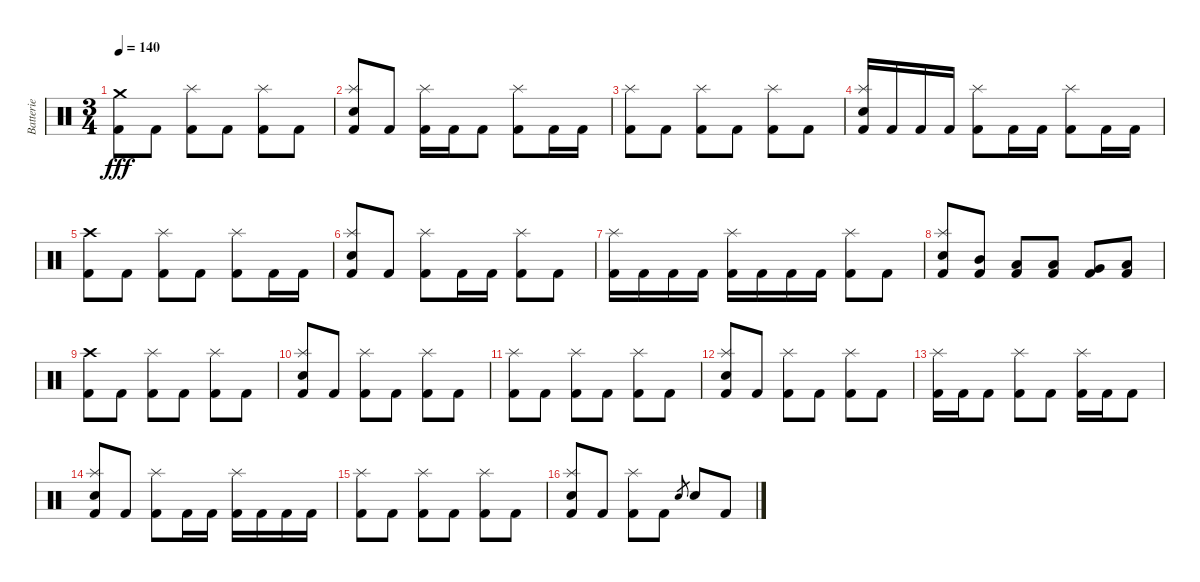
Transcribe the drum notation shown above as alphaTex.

\track ("Batterie" "Batterie") {instrument percussion}
\staff {score}
\articulation defaults
\ts (3 4)
\tempo 140
\clef neutral
\ks c
("Crash medium (hit)" "Kick (hit) 2").8{dy fff} "Kick (hit) 2".8 ("Splash (hit)" "Kick (hit) 2").8 "Kick (hit) 2".8 ("Splash (hit)" "Kick (hit) 2").8 "Kick (hit) 2".8 |
("Splash (hit)" "Electric Snare (hit)" "Kick (hit) 2").8 "Kick (hit) 2".8 ("Splash (hit)" "Kick (hit) 2").16 "Kick (hit) 2".16 "Kick (hit) 2".8 ("Splash (hit)" "Kick (hit) 2").8 "Kick (hit) 2".16 "Kick (hit) 2".16 |
("Splash (hit)" "Kick (hit) 2").8 "Kick (hit) 2".8 ("Splash (hit)" "Kick (hit) 2").8 "Kick (hit) 2".8 ("Splash (hit)" "Kick (hit) 2").8 "Kick (hit) 2".8 |
("Splash (hit)" "Electric Snare (hit)" "Kick (hit) 2").16 "Kick (hit) 2".16 "Kick (hit) 2".16 "Kick (hit) 2".16 ("Splash (hit)" "Kick (hit) 2").8 "Kick (hit) 2".16 "Kick (hit) 2".16 ("Splash (hit)" "Kick (hit) 2").8 "Kick (hit) 2".16 "Kick (hit) 2".16 |
("Crash high (hit)" "Kick (hit) 2").8 "Kick (hit) 2".8 ("Splash (hit)" "Kick (hit) 2").8 "Kick (hit) 2".8 ("Splash (hit)" "Kick (hit) 2").8 "Kick (hit) 2".16 "Kick (hit) 2".16 |
("Splash (hit)" "Electric Snare (hit)" "Kick (hit) 2").8 "Kick (hit) 2".8 ("Splash (hit)" "Kick (hit) 2").8 "Kick (hit) 2".16 "Kick (hit) 2".16 ("Splash (hit)" "Kick (hit) 2").8 "Kick (hit) 2".8 |
("Splash (hit)" "Kick (hit) 2").16 "Kick (hit) 2".16 "Kick (hit) 2".16 "Kick (hit) 2".16 ("Splash (hit)" "Kick (hit) 2").16 "Kick (hit) 2".16 "Kick (hit) 2".16 "Kick (hit) 2".16 ("Splash (hit)" "Kick (hit) 2").8 "Kick (hit) 2".8 |
("Splash (hit)" "Electric Snare (hit)" "Kick (hit) 2").8 ("Mid Tom (hit)" "Kick (hit) 2").8 ("Low Tom (hit)" "Kick (hit) 2").8 ("Low Tom (hit)" "Kick (hit) 2").8 ("Very Low Tom (hit)" "Kick (hit) 2").8 ("Low Floor Tom (hit)" "Kick (hit) 2").8 |
("Crash high (hit)" "Kick (hit) 2").8 "Kick (hit) 2".8 ("Splash (hit)" "Kick (hit) 2").8 "Kick (hit) 2".8 ("Splash (hit)" "Kick (hit) 2").8 "Kick (hit) 2".8 |
("Splash (hit)" "Electric Snare (hit)" "Kick (hit) 2").8 "Kick (hit) 2".8 ("Splash (hit)" "Kick (hit) 2").8 "Kick (hit) 2".8 ("Splash (hit)" "Kick (hit) 2").8 "Kick (hit) 2".8 |
("Splash (hit)" "Kick (hit) 2").8 "Kick (hit) 2".8 ("Splash (hit)" "Kick (hit) 2").8 "Kick (hit) 2".8 ("Splash (hit)" "Kick (hit) 2").8 "Kick (hit) 2".8 |
("Splash (hit)" "Electric Snare (hit)" "Kick (hit) 2").8 "Kick (hit) 2".8 ("Splash (hit)" "Kick (hit) 2").8 "Kick (hit) 2".8 ("Splash (hit)" "Kick (hit) 2").8 "Kick (hit) 2".8 |
("Splash (hit)" "Kick (hit) 2").16 "Kick (hit) 2".16 "Kick (hit) 2".8 ("Splash (hit)" "Kick (hit) 2").8 "Kick (hit) 2".8 ("Splash (hit)" "Kick (hit) 2").16 "Kick (hit) 2".16 "Kick (hit) 2".8 |
("Splash (hit)" "Electric Snare (hit)" "Kick (hit) 2").8 "Kick (hit) 2".8 ("Splash (hit)" "Kick (hit) 2").8 "Kick (hit) 2".16 "Kick (hit) 2".16 ("Splash (hit)" "Kick (hit) 2").16 "Kick (hit) 2".16 "Kick (hit) 2".16 "Kick (hit) 2".16 |
("Splash (hit)" "Kick (hit) 2").8 "Kick (hit) 2".8 ("Splash (hit)" "Kick (hit) 2").8 "Kick (hit) 2".8 ("Splash (hit)" "Kick (hit) 2").8 "Kick (hit) 2".8 |
("Splash (hit)" "Electric Snare (hit)" "Kick (hit) 2").8 "Kick (hit) 2".8 ("Splash (hit)" "Kick (hit) 2").8 "Kick (hit) 2".8 "Electric Snare (hit)".8{gr} "Electric Snare (hit)".8 "Kick (hit) 2".8
